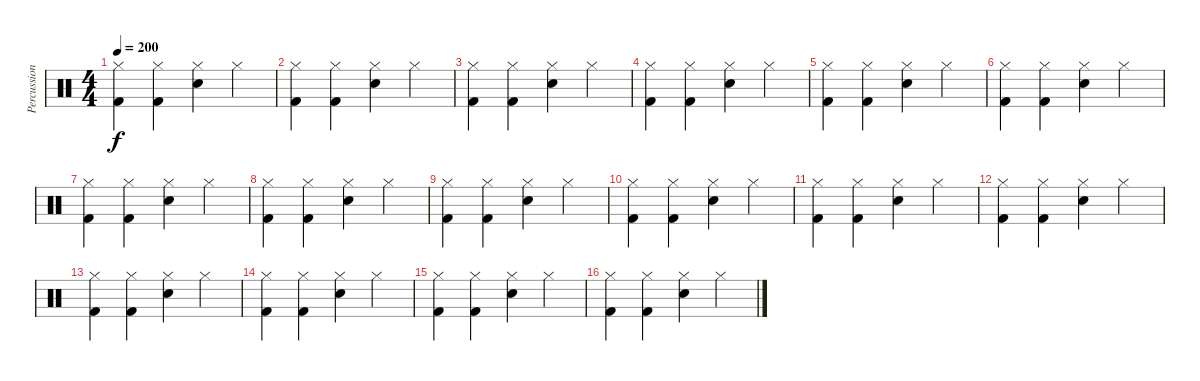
\track ("Percussion" "Percussion") {instrument percussion}
\staff {score}
\articulation defaults
\ts (4 4)
\tempo 200
\clef neutral
\ks c
("Kick (hit) 2" "Hi-Hat (closed)").4{dy f} ("Kick (hit) 2" "Hi-Hat (closed)").4 ("Snare (hit) 2" "Hi-Hat (closed)").4 "Hi-Hat (closed)".4 |
("Kick (hit) 2" "Hi-Hat (closed)").4 ("Kick (hit) 2" "Hi-Hat (closed)").4 ("Snare (hit) 2" "Hi-Hat (closed)").4 "Hi-Hat (closed)".4 |
("Kick (hit) 2" "Hi-Hat (closed)").4 ("Kick (hit) 2" "Hi-Hat (closed)").4 ("Snare (hit) 2" "Hi-Hat (closed)").4 "Hi-Hat (closed)".4 |
("Kick (hit) 2" "Hi-Hat (closed)").4 ("Kick (hit) 2" "Hi-Hat (closed)").4 ("Snare (hit) 2" "Hi-Hat (closed)").4 "Hi-Hat (closed)".4 |
("Kick (hit) 2" "Hi-Hat (closed)").4 ("Kick (hit) 2" "Hi-Hat (closed)").4 ("Snare (hit) 2" "Hi-Hat (closed)").4 "Hi-Hat (closed)".4 |
("Kick (hit) 2" "Hi-Hat (closed)").4 ("Kick (hit) 2" "Hi-Hat (closed)").4 ("Snare (hit) 2" "Hi-Hat (closed)").4 "Hi-Hat (closed)".4 |
("Kick (hit) 2" "Hi-Hat (closed)").4 ("Kick (hit) 2" "Hi-Hat (closed)").4 ("Snare (hit) 2" "Hi-Hat (closed)").4 "Hi-Hat (closed)".4 |
("Kick (hit) 2" "Hi-Hat (closed)").4 ("Kick (hit) 2" "Hi-Hat (closed)").4 ("Snare (hit) 2" "Hi-Hat (closed)").4 "Hi-Hat (closed)".4 |
("Kick (hit) 2" "Hi-Hat (closed)").4 ("Kick (hit) 2" "Hi-Hat (closed)").4 ("Snare (hit) 2" "Hi-Hat (closed)").4 "Hi-Hat (closed)".4 |
("Kick (hit) 2" "Hi-Hat (closed)").4 ("Kick (hit) 2" "Hi-Hat (closed)").4 ("Snare (hit) 2" "Hi-Hat (closed)").4 "Hi-Hat (closed)".4 |
("Kick (hit) 2" "Hi-Hat (closed)").4 ("Kick (hit) 2" "Hi-Hat (closed)").4 ("Snare (hit) 2" "Hi-Hat (closed)").4 "Hi-Hat (closed)".4 |
("Kick (hit) 2" "Hi-Hat (closed)").4 ("Kick (hit) 2" "Hi-Hat (closed)").4 ("Snare (hit) 2" "Hi-Hat (closed)").4 "Hi-Hat (closed)".4 |
("Kick (hit) 2" "Hi-Hat (closed)").4 ("Kick (hit) 2" "Hi-Hat (closed)").4 ("Snare (hit) 2" "Hi-Hat (closed)").4 "Hi-Hat (closed)".4 |
("Kick (hit) 2" "Hi-Hat (closed)").4 ("Kick (hit) 2" "Hi-Hat (closed)").4 ("Snare (hit) 2" "Hi-Hat (closed)").4 "Hi-Hat (closed)".4 |
("Kick (hit) 2" "Hi-Hat (closed)").4 ("Kick (hit) 2" "Hi-Hat (closed)").4 ("Snare (hit) 2" "Hi-Hat (closed)").4 "Hi-Hat (closed)".4 |
("Kick (hit) 2" "Hi-Hat (closed)").4 ("Kick (hit) 2" "Hi-Hat (closed)").4 ("Snare (hit) 2" "Hi-Hat (closed)").4 "Hi-Hat (closed)".4
